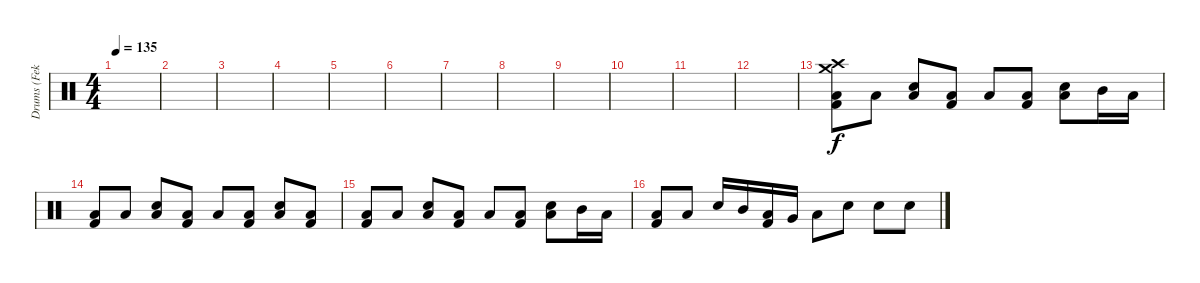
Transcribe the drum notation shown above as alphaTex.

\track ("Drums (Feka)" "Drums (Fek") {instrument percussion}
\staff {score}
\articulation defaults
\ts (4 4)
\tempo 135
\clef neutral
\ks c
|
|
|
|
|
|
|
|
|
|
|
|
("Crash high (hit)" "Crash medium (hit)" "Low Floor Tom (hit)" "Kick (hit) 2").8 "Low Floor Tom (hit)".8 ("Snare (hit) 2" "Low Floor Tom (hit)").8 ("Low Floor Tom (hit)" "Kick (hit) 2").8 "Low Floor Tom (hit)".8 ("Low Floor Tom (hit)" "Kick (hit) 2").8 ("Snare (hit) 2" "Low Floor Tom (hit)").8 "Mid Tom (hit)".16 "Low Tom (hit)".16 |
("Low Floor Tom (hit)" "Kick (hit) 2").8 "Low Floor Tom (hit)".8 ("Snare (hit) 2" "Low Floor Tom (hit)").8 ("Low Floor Tom (hit)" "Kick (hit) 2").8 "Low Floor Tom (hit)".8 ("Low Floor Tom (hit)" "Kick (hit) 2").8 ("Snare (hit) 2" "Low Floor Tom (hit)").8 ("Low Floor Tom (hit)" "Kick (hit) 2").8 |
("Low Floor Tom (hit)" "Kick (hit) 2").8 "Low Floor Tom (hit)".8 ("Snare (hit) 2" "Low Floor Tom (hit)").8 ("Low Floor Tom (hit)" "Kick (hit) 2").8 "Low Floor Tom (hit)".8 ("Low Floor Tom (hit)" "Kick (hit) 2").8 ("Snare (hit) 2" "Low Floor Tom (hit)").8 "Mid Tom (hit)".16 "Low Tom (hit)".16 |
("Low Floor Tom (hit)" "Kick (hit) 2").8 "Low Floor Tom (hit)".8 "Snare (hit) 2".16 "Mid Tom (hit)".16 ("Low Tom (hit)" "Kick (hit) 2").16 "Very Low Tom (hit)".16 "Low Floor Tom (hit)".8 "Snare (hit) 2".8 "Snare (hit) 2".8 "Snare (hit) 2".8
